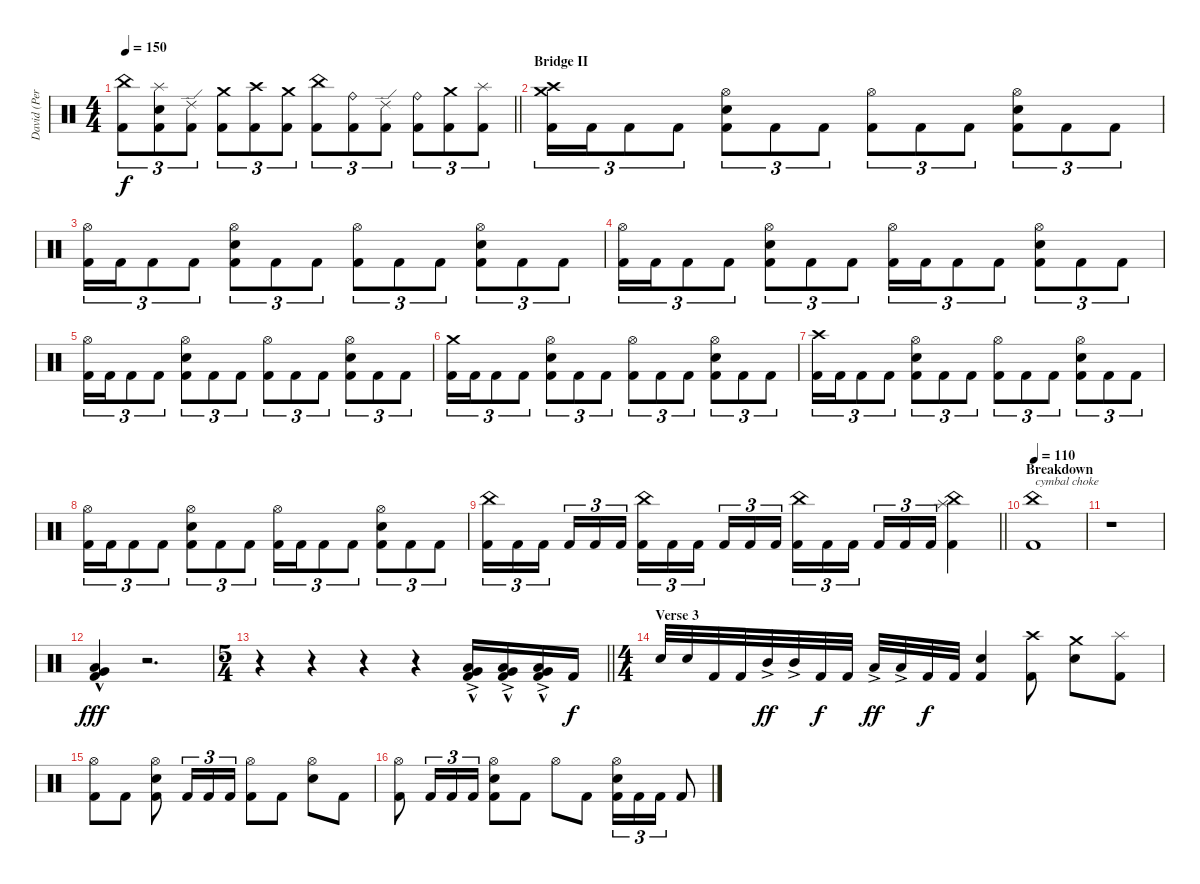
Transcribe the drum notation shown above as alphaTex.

\track ("David (Percussion)" "David (Per") {instrument percussion}
\staff {score}
\articulation defaults
\ts (4 4)
\tempo 150
\clef neutral
\barLineRight lightlight
\ks c
("China (hit)" "Kick (hit) 2").8{tu (3 2) dy f} ("Splash (hit)" "Electric Snare (hit)" "Kick (hit) 2").8{tu (3 2)} ("Ride (edge) 2" "Kick (hit) 2").8{tu (3 2)} ("Crash medium (hit)" "Kick (hit) 2").8{tu (3 2)} ("Crash high (hit)" "Kick (hit) 2").8{tu (3 2)} ("Crash medium (hit)" "Kick (hit) 2").8{tu (3 2)} ("China (hit)" "Kick (hit) 2").8{tu (3 2)} ("Ride (bell)" "Kick (hit) 2").8{tu (3 2)} ("Ride (edge) 2" "Kick (hit) 2").8{tu (3 2)} ("Ride (bell)" "Kick (hit) 2").8{tu (3 2)} ("Crash medium (hit)" "Kick (hit) 2").8{tu (3 2)} ("Splash (hit)" "Kick (hit) 2").8{tu (3 2)} |
\section ("" "Bridge II")
("Crash medium (hit)" "Crash high (hit)" "Kick (hit) 2").16{tu (3 2)} "Kick (hit) 2".16{tu (3 2)} "Kick (hit) 2".8{tu (3 2)} "Kick (hit) 2".8{tu (3 2)} ("Hi-Hat (open)" "Electric Snare (hit)" "Kick (hit) 2").8{tu (3 2)} "Kick (hit) 2".8{tu (3 2)} "Kick (hit) 2".8{tu (3 2)} ("Hi-Hat (open)" "Kick (hit) 2").8{tu (3 2)} "Kick (hit) 2".8{tu (3 2)} "Kick (hit) 2".8{tu (3 2)} ("Hi-Hat (open)" "Electric Snare (hit)" "Kick (hit) 2").8{tu (3 2)} "Kick (hit) 2".8{tu (3 2)} "Kick (hit) 2".8{tu (3 2)} |
("Hi-Hat (open)" "Kick (hit) 2").16{tu (3 2)} "Kick (hit) 2".16{tu (3 2)} "Kick (hit) 2".8{tu (3 2)} "Kick (hit) 2".8{tu (3 2)} ("Hi-Hat (open)" "Electric Snare (hit)" "Kick (hit) 2").8{tu (3 2)} "Kick (hit) 2".8{tu (3 2)} "Kick (hit) 2".8{tu (3 2)} ("Hi-Hat (open)" "Kick (hit) 2").8{tu (3 2)} "Kick (hit) 2".8{tu (3 2)} "Kick (hit) 2".8{tu (3 2)} ("Hi-Hat (open)" "Electric Snare (hit)" "Kick (hit) 2").8{tu (3 2)} "Kick (hit) 2".8{tu (3 2)} "Kick (hit) 2".8{tu (3 2)} |
("Hi-Hat (open)" "Kick (hit) 2").16{tu (3 2)} "Kick (hit) 2".16{tu (3 2)} "Kick (hit) 2".8{tu (3 2)} "Kick (hit) 2".8{tu (3 2)} ("Hi-Hat (open)" "Electric Snare (hit)" "Kick (hit) 2").8{tu (3 2)} "Kick (hit) 2".8{tu (3 2)} "Kick (hit) 2".8{tu (3 2)} ("Hi-Hat (open)" "Kick (hit) 2").16{tu (3 2)} "Kick (hit) 2".16{tu (3 2)} "Kick (hit) 2".8{tu (3 2)} "Kick (hit) 2".8{tu (3 2)} ("Hi-Hat (open)" "Electric Snare (hit)" "Kick (hit) 2").8{tu (3 2)} "Kick (hit) 2".8{tu (3 2)} "Kick (hit) 2".8{tu (3 2)} |
("Hi-Hat (open)" "Kick (hit) 2").16{tu (3 2)} "Kick (hit) 2".16{tu (3 2)} "Kick (hit) 2".8{tu (3 2)} "Kick (hit) 2".8{tu (3 2)} ("Hi-Hat (open)" "Electric Snare (hit)" "Kick (hit) 2").8{tu (3 2)} "Kick (hit) 2".8{tu (3 2)} "Kick (hit) 2".8{tu (3 2)} ("Hi-Hat (open)" "Kick (hit) 2").8{tu (3 2)} "Kick (hit) 2".8{tu (3 2)} "Kick (hit) 2".8{tu (3 2)} ("Hi-Hat (open)" "Electric Snare (hit)" "Kick (hit) 2").8{tu (3 2)} "Kick (hit) 2".8{tu (3 2)} "Kick (hit) 2".8{tu (3 2)} |
("Crash medium (hit)" "Kick (hit) 2").16{tu (3 2)} "Kick (hit) 2".16{tu (3 2)} "Kick (hit) 2".8{tu (3 2)} "Kick (hit) 2".8{tu (3 2)} ("Hi-Hat (open)" "Electric Snare (hit)" "Kick (hit) 2").8{tu (3 2)} "Kick (hit) 2".8{tu (3 2)} "Kick (hit) 2".8{tu (3 2)} ("Hi-Hat (open)" "Kick (hit) 2").8{tu (3 2)} "Kick (hit) 2".8{tu (3 2)} "Kick (hit) 2".8{tu (3 2)} ("Hi-Hat (open)" "Electric Snare (hit)" "Kick (hit) 2").8{tu (3 2)} "Kick (hit) 2".8{tu (3 2)} "Kick (hit) 2".8{tu (3 2)} |
("Crash high (hit)" "Kick (hit) 2").16{tu (3 2)} "Kick (hit) 2".16{tu (3 2)} "Kick (hit) 2".8{tu (3 2)} "Kick (hit) 2".8{tu (3 2)} ("Hi-Hat (open)" "Electric Snare (hit)" "Kick (hit) 2").8{tu (3 2)} "Kick (hit) 2".8{tu (3 2)} "Kick (hit) 2".8{tu (3 2)} ("Hi-Hat (open)" "Kick (hit) 2").8{tu (3 2)} "Kick (hit) 2".8{tu (3 2)} "Kick (hit) 2".8{tu (3 2)} ("Hi-Hat (open)" "Electric Snare (hit)" "Kick (hit) 2").8{tu (3 2)} "Kick (hit) 2".8{tu (3 2)} "Kick (hit) 2".8{tu (3 2)} |
("Hi-Hat (open)" "Kick (hit) 2").16{tu (3 2)} "Kick (hit) 2".16{tu (3 2)} "Kick (hit) 2".8{tu (3 2)} "Kick (hit) 2".8{tu (3 2)} ("Hi-Hat (open)" "Electric Snare (hit)" "Kick (hit) 2").8{tu (3 2)} "Kick (hit) 2".8{tu (3 2)} "Kick (hit) 2".8{tu (3 2)} ("Hi-Hat (open)" "Kick (hit) 2").16{tu (3 2)} "Kick (hit) 2".16{tu (3 2)} "Kick (hit) 2".8{tu (3 2)} "Kick (hit) 2".8{tu (3 2)} ("Hi-Hat (open)" "Electric Snare (hit)" "Kick (hit) 2").8{tu (3 2)} "Kick (hit) 2".8{tu (3 2)} "Kick (hit) 2".8{tu (3 2)} |
\barLineRight lightlight
("China (hit)" "Kick (hit) 2").16{tu (3 2)} "Kick (hit) 2".16{tu (3 2)} "Kick (hit) 2".16{tu (3 2) beam splitsecondary} "Kick (hit) 2".16{tu (3 2)} "Kick (hit) 2".16{tu (3 2)} "Kick (hit) 2".16{tu (3 2)} ("China (hit)" "Kick (hit) 2").16{tu (3 2)} "Kick (hit) 2".16{tu (3 2)} "Kick (hit) 2".16{tu (3 2) beam splitsecondary} "Kick (hit) 2".16{tu (3 2)} "Kick (hit) 2".16{tu (3 2)} "Kick (hit) 2".16{tu (3 2)} ("China (hit)" "Kick (hit) 2").16{tu (3 2)} "Kick (hit) 2".16{tu (3 2)} "Kick (hit) 2".16{tu (3 2) beam splitsecondary} "Kick (hit) 2".16{tu (3 2)} "Kick (hit) 2".16{tu (3 2)} "Kick (hit) 2".16{tu (3 2)} ("Splash (hit)" "China (hit)" "Kick (hit) 2").4 |
\section ("" "Breakdown")
\tempo 110
("China (hit)" "Kick (hit) 2").1{txt "cymbal choke"} |
r.1 |
("Very Low Tom (hit)"{hac} "Low Floor Tom (hit)"{hac} "Kick (hit) 2").4{dy fff} r.2{d} |
\ts (5 4)
\barLineRight lightlight
r.4 r.4 r.4 r.4 ("Low Tom (hit)"{ac} "Very Low Tom (hit)"{hac} "Kick (hit) 2").16 ("Low Tom (hit)"{ac} "Very Low Tom (hit)"{hac} "Kick (hit) 2").16 ("Low Tom (hit)"{ac} "Very Low Tom (hit)"{hac} "Kick (hit) 2").16 "Kick (hit) 2".16{dy f} |
\ts (4 4)
\section ("" "Verse 3")
"Electric Snare (hit)".32 "Electric Snare (hit)".32 "Kick (hit) 2".32 "Kick (hit) 2".32 "Mid Tom (hit)"{ac}.32{dy ff} "Mid Tom (hit)"{ac}.32 "Kick (hit) 2".32{dy f} "Kick (hit) 2".32 "Low Tom (hit)"{ac}.32{dy ff} "Low Tom (hit)"{ac}.32 "Kick (hit) 2".32{dy f} "Kick (hit) 2".32 ("Electric Snare (hit)" "Kick (hit) 2").4 ("Crash high (hit)" "Kick (hit) 2").8 ("Crash medium (hit)" "Electric Snare (hit)").8 ("Splash (hit)" "Kick (hit) 2").8 |
("Hi-Hat (open)" "Kick (hit) 2").8 "Kick (hit) 2".8 ("Hi-Hat (open)" "Electric Snare (hit)" "Kick (hit) 2").8 "Kick (hit) 2".16{tu (3 2)} "Kick (hit) 2".16{tu (3 2)} "Kick (hit) 2".16{tu (3 2)} ("Hi-Hat (open)" "Kick (hit) 2").8 "Kick (hit) 2".8 ("Hi-Hat (open)" "Electric Snare (hit)").8 "Kick (hit) 2".8 |
("Hi-Hat (open)" "Kick (hit) 2").8 "Kick (hit) 2".16{tu (3 2)} "Kick (hit) 2".16{tu (3 2)} "Kick (hit) 2".16{tu (3 2)} ("Hi-Hat (open)" "Electric Snare (hit)" "Kick (hit) 2").8 "Kick (hit) 2".8 "Hi-Hat (open)".8 "Kick (hit) 2".8 ("Hi-Hat (open)" "Electric Snare (hit)" "Kick (hit) 2").16{tu (3 2)} "Kick (hit) 2".16{tu (3 2)} "Kick (hit) 2".16{tu (3 2)} "Kick (hit) 2".8
